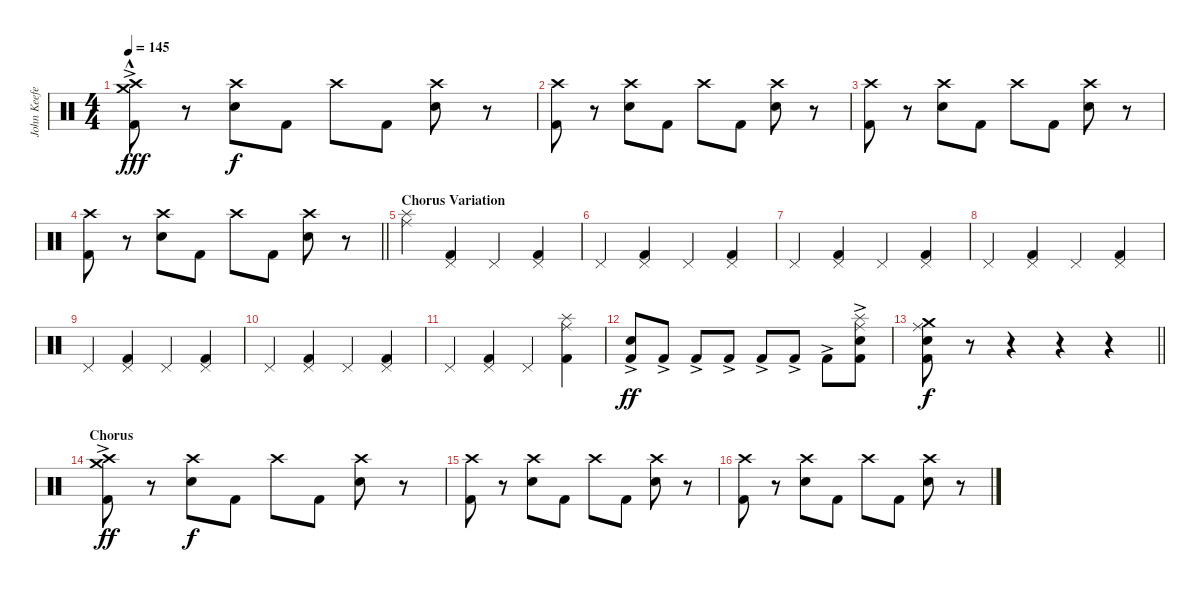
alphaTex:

\track ("John Keefe (Percussion)" "John Keefe") {instrument percussion}
\staff {score}
\articulation defaults
\ts (4 4)
\tempo 145
\clef neutral
\ks c
("Crash high (hit)"{ac} "Crash medium (hit)" "Kick (hit) 2"{hac}).8{dy fff} r.8 ("Crash high (hit)" "Electric Snare (hit)").8{dy f} "Kick (hit) 2".8 "Crash high (hit)".8 "Kick (hit) 2".8 ("Crash high (hit)" "Electric Snare (hit)").8 r.8 |
("Crash high (hit)" "Kick (hit) 2").8 r.8 ("Crash high (hit)" "Electric Snare (hit)").8 "Kick (hit) 2".8 "Crash high (hit)".8 "Kick (hit) 2".8 ("Crash high (hit)" "Electric Snare (hit)").8 r.8 |
("Crash high (hit)" "Kick (hit) 2").8 r.8 ("Crash high (hit)" "Electric Snare (hit)").8 "Kick (hit) 2".8 "Crash high (hit)".8 "Kick (hit) 2".8 ("Crash high (hit)" "Electric Snare (hit)").8 r.8 |
\barLineRight lightlight
("Crash high (hit)" "Kick (hit) 2").8 r.8 ("Crash high (hit)" "Electric Snare (hit)").8 "Kick (hit) 2".8 "Crash high (hit)".8 "Kick (hit) 2".8 ("Crash high (hit)" "Electric Snare (hit)").8 r.8 |
\section ("" "Chorus Variation")
("Ride (middle)" "Splash (hit)").4 ("Pedal Hi-Hat (hit)" "Kick (hit) 2").4 "Pedal Hi-Hat (hit)".4 ("Pedal Hi-Hat (hit)" "Kick (hit) 2").4 |
"Pedal Hi-Hat (hit)".4 ("Pedal Hi-Hat (hit)" "Kick (hit) 2").4 "Pedal Hi-Hat (hit)".4 ("Pedal Hi-Hat (hit)" "Kick (hit) 2").4 |
"Pedal Hi-Hat (hit)".4 ("Pedal Hi-Hat (hit)" "Kick (hit) 2").4 "Pedal Hi-Hat (hit)".4 ("Pedal Hi-Hat (hit)" "Kick (hit) 2").4 |
"Pedal Hi-Hat (hit)".4 ("Pedal Hi-Hat (hit)" "Kick (hit) 2").4 "Pedal Hi-Hat (hit)".4 ("Pedal Hi-Hat (hit)" "Kick (hit) 2").4 |
"Pedal Hi-Hat (hit)".4 ("Pedal Hi-Hat (hit)" "Kick (hit) 2").4 "Pedal Hi-Hat (hit)".4 ("Pedal Hi-Hat (hit)" "Kick (hit) 2").4 |
"Pedal Hi-Hat (hit)".4 ("Pedal Hi-Hat (hit)" "Kick (hit) 2").4 "Pedal Hi-Hat (hit)".4 ("Pedal Hi-Hat (hit)" "Kick (hit) 2").4 |
"Pedal Hi-Hat (hit)".4 ("Pedal Hi-Hat (hit)" "Kick (hit) 2").4 "Pedal Hi-Hat (hit)".4 ("Ride (middle)" "Splash (hit)" "Kick (hit) 2").4 |
("Electric Snare (hit)"{ac} "Kick (hit) 2"{ac}).8{dy ff} "Kick (hit) 2"{ac}.8 "Kick (hit) 2"{ac}.8 "Kick (hit) 2"{ac}.8 "Kick (hit) 2"{ac}.8 "Kick (hit) 2"{ac}.8 "Kick (hit) 2"{ac}.8 ("Ride (middle)" "Splash (hit)" "Electric Snare (hit)"{ac} "Kick (hit) 2"{ac}).8 |
\barLineRight lightlight
("Ride (middle)" "Crash medium (hit)" "Electric Snare (hit)" "Kick (hit) 2").8{dy f} r.8 r.4 r.4 r.4 |
\section ("" "Chorus")
("Crash high (hit)"{ac} "Crash medium (hit)" "Kick (hit) 2").8{dy ff} r.8 ("Crash high (hit)" "Electric Snare (hit)").8{dy f} "Kick (hit) 2".8 "Crash high (hit)".8 "Kick (hit) 2".8 ("Crash high (hit)" "Electric Snare (hit)").8 r.8 |
("Crash high (hit)" "Kick (hit) 2").8 r.8 ("Crash high (hit)" "Electric Snare (hit)").8 "Kick (hit) 2".8 "Crash high (hit)".8 "Kick (hit) 2".8 ("Crash high (hit)" "Electric Snare (hit)").8 r.8 |
("Crash high (hit)" "Kick (hit) 2").8 r.8 ("Crash high (hit)" "Electric Snare (hit)").8 "Kick (hit) 2".8 "Crash high (hit)".8 "Kick (hit) 2".8 ("Crash high (hit)" "Electric Snare (hit)").8 r.8
